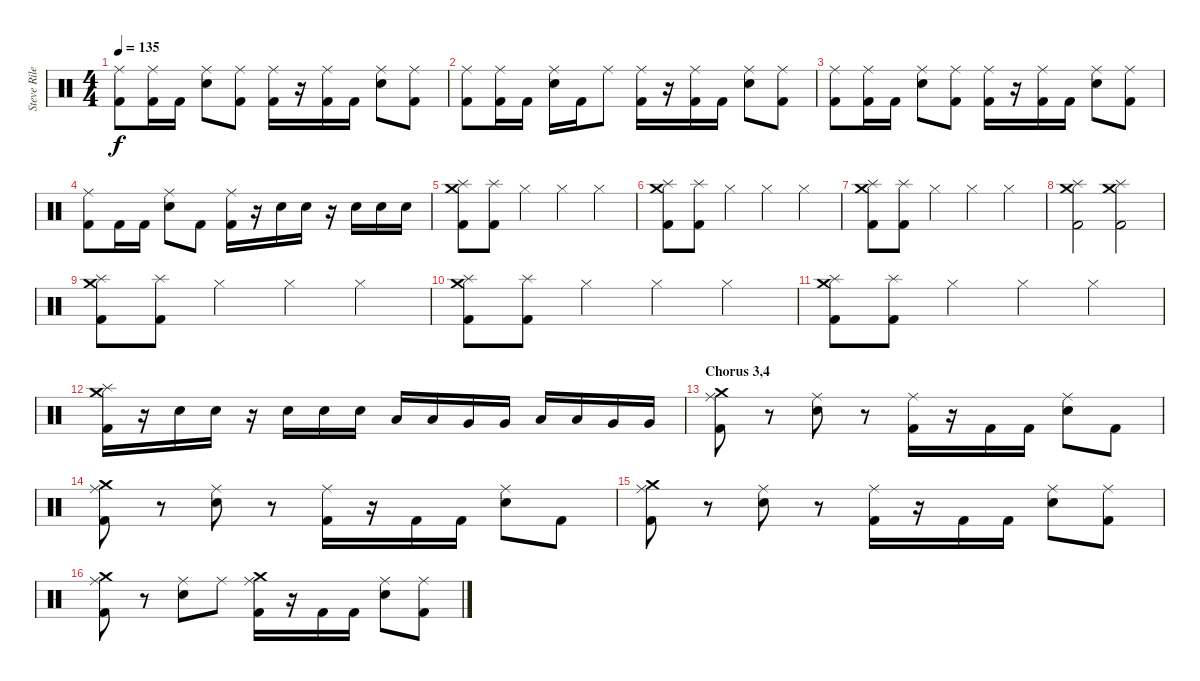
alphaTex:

\track ("Steve Riley" "Steve Rile") {instrument percussion}
\staff {score}
\articulation defaults
\ts (4 4)
\tempo 135
\clef neutral
\ks c
("Ride (middle)" "Kick (hit) 2").8{dy f} ("Ride (middle)" "Kick (hit) 2").16 "Kick (hit) 2".16 ("Ride (middle)" "Snare (hit) 2").8 ("Ride (middle)" "Kick (hit) 2").8 ("Ride (middle)" "Kick (hit) 2").16 r.16 ("Ride (middle)" "Kick (hit) 2").16 "Kick (hit) 2".16 ("Ride (middle)" "Snare (hit) 2").8 ("Ride (middle)" "Kick (hit) 2").8 |
("Ride (middle)" "Kick (hit) 2").8 ("Ride (middle)" "Kick (hit) 2").16 "Kick (hit) 2".16 ("Ride (middle)" "Snare (hit) 2").16 "Kick (hit) 2".16 "Ride (middle)".8 ("Ride (middle)" "Kick (hit) 2").16 r.16 ("Ride (middle)" "Kick (hit) 2").16 "Kick (hit) 2".16 ("Ride (middle)" "Snare (hit) 2").8 ("Ride (middle)" "Kick (hit) 2").8 |
("Ride (middle)" "Kick (hit) 2").8 ("Ride (middle)" "Kick (hit) 2").16 "Kick (hit) 2".16 ("Ride (middle)" "Snare (hit) 2").8 ("Ride (middle)" "Kick (hit) 2").8 ("Ride (middle)" "Kick (hit) 2").16 r.16 ("Ride (middle)" "Kick (hit) 2").16 "Kick (hit) 2".16 ("Ride (middle)" "Snare (hit) 2").8 ("Ride (middle)" "Kick (hit) 2").8 |
("Ride (middle)" "Kick (hit) 2").8 "Kick (hit) 2".16 "Kick (hit) 2".16 ("Ride (middle)" "Snare (hit) 2").8 "Kick (hit) 2".8 ("Ride (middle)" "Kick (hit) 2").16 r.16 "Snare (hit) 2".16 "Snare (hit) 2".16 r.16 "Snare (hit) 2".16 "Snare (hit) 2".16 "Snare (hit) 2".16 |
("Crash medium (hit)" "Splash (hit)" "Kick (hit) 2").8 ("Splash (hit)" "Kick (hit) 2").8 "Hi-Hat (closed)".4 "Hi-Hat (closed)".4 "Hi-Hat (closed)".4 |
("Crash medium (hit)" "Splash (hit)" "Kick (hit) 2").8 ("Splash (hit)" "Kick (hit) 2").8 "Hi-Hat (closed)".4 "Hi-Hat (closed)".4 "Hi-Hat (closed)".4 |
("Crash medium (hit)" "Splash (hit)" "Kick (hit) 2").8 ("Splash (hit)" "Kick (hit) 2").8 "Hi-Hat (closed)".4 "Hi-Hat (closed)".4 "Hi-Hat (closed)".4 |
("Crash medium (hit)" "Splash (hit)" "Kick (hit) 2").2 ("Crash medium (hit)" "Splash (hit)" "Kick (hit) 2").2 |
("Crash medium (hit)" "Splash (hit)" "Kick (hit) 2").8 ("Splash (hit)" "Kick (hit) 2").8 "Hi-Hat (closed)".4 "Hi-Hat (closed)".4 "Hi-Hat (closed)".4 |
("Crash medium (hit)" "Splash (hit)" "Kick (hit) 2").8 ("Splash (hit)" "Kick (hit) 2").8 "Hi-Hat (closed)".4 "Hi-Hat (closed)".4 "Hi-Hat (closed)".4 |
("Crash medium (hit)" "Splash (hit)" "Kick (hit) 2").8 ("Splash (hit)" "Kick (hit) 2").8 "Hi-Hat (closed)".4 "Hi-Hat (closed)".4 "Hi-Hat (closed)".4 |
("Crash medium (hit)" "Splash (hit)" "Kick (hit) 2").16 r.16 "Snare (hit) 2".16 "Snare (hit) 2".16 r.16 "Snare (hit) 2".16 "Snare (hit) 2".16 "Snare (hit) 2".16 "Low Tom (hit)".16 "Low Tom (hit)".16 "Very Low Tom (hit)".16 "Very Low Tom (hit)".16 "Low Tom (hit)".16 "Low Tom (hit)".16 "Very Low Tom (hit)".16 "Very Low Tom (hit)".16 |
\section ("" "Chorus 3,4")
("Crash medium (hit)" "Ride (middle)" "Kick (hit) 2").8 r.8 ("Ride (middle)" "Snare (hit) 2").8 r.8 ("Ride (middle)" "Kick (hit) 2").16 r.16 "Kick (hit) 2".16 "Kick (hit) 2".16 ("Ride (middle)" "Snare (hit) 2").8 "Kick (hit) 2".8 |
("Crash medium (hit)" "Ride (middle)" "Kick (hit) 2").8 r.8 ("Ride (middle)" "Snare (hit) 2").8 r.8 ("Ride (middle)" "Kick (hit) 2").16 r.16 "Kick (hit) 2".16 "Kick (hit) 2".16 ("Ride (middle)" "Snare (hit) 2").8 "Kick (hit) 2".8 |
("Crash medium (hit)" "Ride (middle)" "Kick (hit) 2").8 r.8 ("Ride (middle)" "Snare (hit) 2").8 r.8 ("Ride (middle)" "Kick (hit) 2").16 r.16 "Kick (hit) 2".16 "Kick (hit) 2".16 ("Ride (middle)" "Snare (hit) 2").8 ("Ride (middle)" "Kick (hit) 2").8 |
("Crash medium (hit)" "Ride (middle)" "Kick (hit) 2").8 r.8 ("Ride (middle)" "Snare (hit) 2").8 "Ride (middle)".8 ("Crash medium (hit)" "Ride (middle)" "Kick (hit) 2").16 r.16 "Kick (hit) 2".16 "Kick (hit) 2".16 ("Ride (middle)" "Snare (hit) 2").8 ("Ride (middle)" "Kick (hit) 2").8
